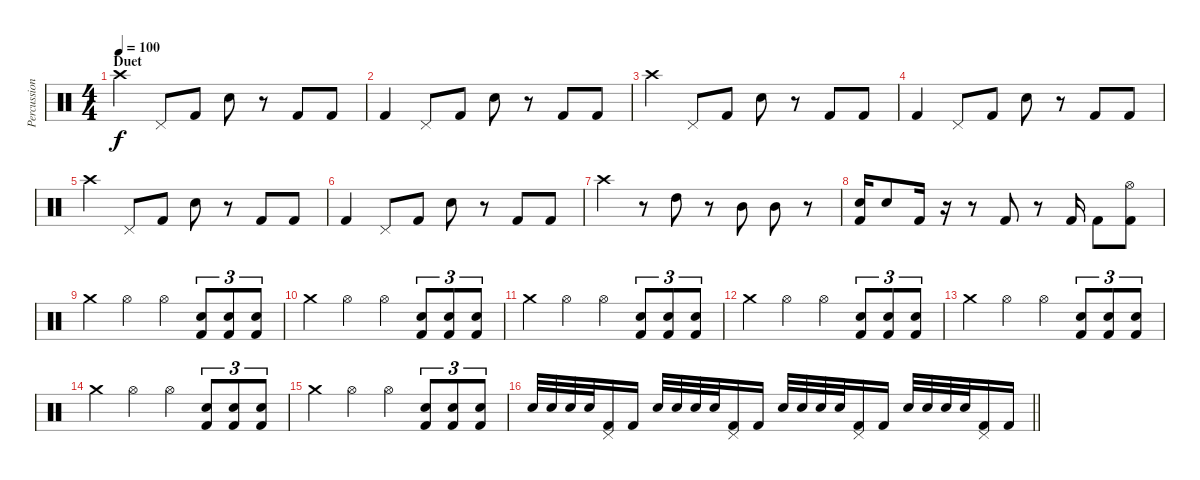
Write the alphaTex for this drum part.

\track ("Percussion" "Percussion") {instrument percussion}
\staff {score}
\articulation defaults
\ts (4 4)
\section ("" "Duet")
\tempo 100
\clef neutral
\ks c "Crash high (hit)".4{dy f} "Pedal Hi-Hat (hit)".8 "Kick (hit) 2".8 "Electric Snare (hit)".8
r.8 "Kick (hit) 2".8 "Kick (hit) 2".8 |
"Kick (hit) 2".4 "Pedal Hi-Hat (hit)".8 "Kick (hit) 2".8 "Electric Snare (hit)".8 r.8 "Kick (hit) 2".8 "Kick (hit) 2".8 |
"Crash high (hit)".4 "Pedal Hi-Hat (hit)".8 "Kick (hit) 2".8 "Electric Snare (hit)".8 r.8 "Kick (hit) 2".8 "Kick (hit) 2".8 |
"Kick (hit) 2".4 "Pedal Hi-Hat (hit)".8 "Kick (hit) 2".8 "Electric Snare (hit)".8 r.8 "Kick (hit) 2".8 "Kick (hit) 2".8 |
"Crash high (hit)".4 "Pedal Hi-Hat (hit)".8 "Kick (hit) 2".8 "Electric Snare (hit)".8 r.8 "Kick (hit) 2".8 "Kick (hit) 2".8 |
"Kick (hit) 2".4 "Pedal Hi-Hat (hit)".8 "Kick (hit) 2".8 "Electric Snare (hit)".8 r.8 "Kick (hit) 2".8 "Kick (hit) 2".8 |
"Crash high (hit)".4 r.8 "High Tom (hit)".8 r.8 "Mid Tom (hit)".8 "Mid Tom (hit)".8 r.8 |
("Electric Snare (hit)" "Kick (hit) 2").16 "Electric Snare (hit)".8 "Kick (hit) 2".16 r.16 r.8 "Kick (hit) 2".8 r.8 "Kick (hit) 2".16 "Kick (hit) 2".8 ("Hi-Hat (open)" "Kick (hit) 2").8 |
"Crash medium (hit)".4 "Hi-Hat (open)".4 "Hi-Hat (open)".4 ("Electric Snare (hit)" "Kick (hit) 2").8{tu (3 2)} ("Electric Snare (hit)" "Kick (hit) 2").8{tu (3 2)} ("Electric Snare (hit)" "Kick (hit) 2").8{tu (3 2)} |
"Crash medium (hit)".4 "Hi-Hat (open)".4 "Hi-Hat (open)".4 ("Electric Snare (hit)" "Kick (hit) 2").8{tu (3 2)} ("Electric Snare (hit)" "Kick (hit) 2").8{tu (3 2)} ("Electric Snare (hit)" "Kick (hit) 2").8{tu (3 2)} |
"Crash medium (hit)".4 "Hi-Hat (open)".4 "Hi-Hat (open)".4 ("Electric Snare (hit)" "Kick (hit) 2").8{tu (3 2)} ("Electric Snare (hit)" "Kick (hit) 2").8{tu (3 2)} ("Electric Snare (hit)" "Kick (hit) 2").8{tu (3 2)} |
"Crash medium (hit)".4 "Hi-Hat (open)".4 "Hi-Hat (open)".4 ("Electric Snare (hit)" "Kick (hit) 2").8{tu (3 2)} ("Electric Snare (hit)" "Kick (hit) 2").8{tu (3 2)} ("Electric Snare (hit)" "Kick (hit) 2").8{tu (3 2)} |
"Crash medium (hit)".4 "Hi-Hat (open)".4 "Hi-Hat (open)".4 ("Electric Snare (hit)" "Kick (hit) 2").8{tu (3 2)} ("Electric Snare (hit)" "Kick (hit) 2").8{tu (3 2)} ("Electric Snare (hit)" "Kick (hit) 2").8{tu (3 2)} |
"Crash medium (hit)".4 "Hi-Hat (open)".4 "Hi-Hat (open)".4 ("Electric Snare (hit)" "Kick (hit) 2").8{tu (3 2)} ("Electric Snare (hit)" "Kick (hit) 2").8{tu (3 2)} ("Electric Snare (hit)" "Kick (hit) 2").8{tu (3 2)} |
"Crash medium (hit)".4 "Hi-Hat (open)".4 "Hi-Hat (open)".4 ("Electric Snare (hit)" "Kick (hit) 2").8{tu (3 2)} ("Electric Snare (hit)" "Kick (hit) 2").8{tu (3 2)} ("Electric Snare (hit)" "Kick (hit) 2").8{tu (3 2)} |
\barLineRight lightlight "Electric Snare (hit)".32 "Electric Snare (hit)".32 "Electric Snare (hit)".32 "Electric Snare (hit)".32
("Pedal Hi-Hat (hit)" "Kick (hit) 2").16 "Kick (hit) 2".16 "Electric Snare (hit)".32 "Electric Snare (hit)".32 "Electric Snare (hit)".32 "Electric Snare (hit)".32 ("Pedal Hi-Hat (hit)" "Kick (hit) 2").16 "Kick (hit) 2".16 "Electric Snare (hit)".32 "Electric Snare (hit)".32 "Electric Snare (hit)".32 "Electric Snare (hit)".32 ("Pedal Hi-Hat (hit)" "Kick (hit) 2").16 "Kick (hit) 2".16 "Electric Snare (hit)".32 "Electric Snare (hit)".32 "Electric Snare (hit)".32 "Electric Snare (hit)".32 ("Pedal Hi-Hat (hit)" "Kick (hit) 2").16 "Kick (hit) 2".16
